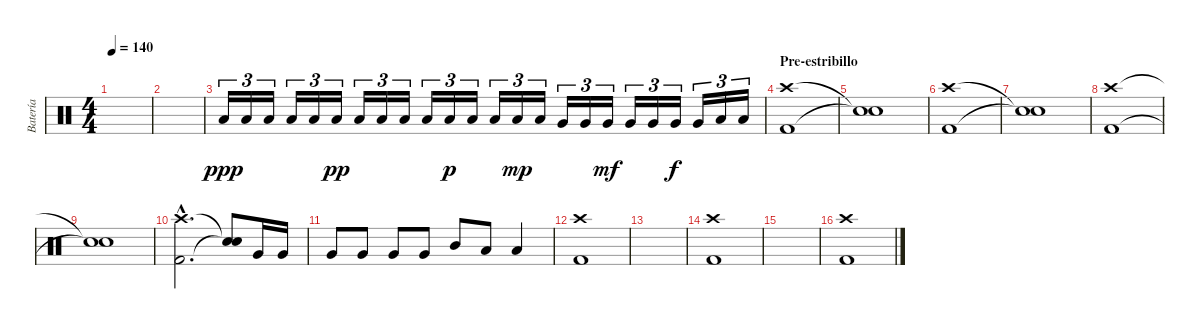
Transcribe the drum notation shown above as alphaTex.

\track ("Batería" "Batería") {instrument percussion}
\staff {score}
\articulation defaults
\ts (4 4)
\tempo 140
\clef neutral
\ks c
|
|
"Low Tom (hit)".16{tu (3 2) dy ppp} "Low Tom (hit)".16{tu (3 2)} "Low Tom (hit)".16{tu (3 2)} "Low Tom (hit)".16{tu (3 2)} "Low Tom (hit)".16{tu (3 2)} "Low Tom (hit)".16{tu (3 2) dy pp} "Low Tom (hit)".16{tu (3 2)} "Low Tom (hit)".16{tu (3 2)} "Low Tom (hit)".16{tu (3 2)} "Low Tom (hit)".16{tu (3 2)} "Low Tom (hit)".16{tu (3 2) dy p} "Low Tom (hit)".16{tu (3 2)} "Low Tom (hit)".16{tu (3 2)} "Low Tom (hit)".16{tu (3 2) dy mp} "Low Tom (hit)".16{tu (3 2)} "Very Low Tom (hit)".16{tu (3 2)} "Very Low Tom (hit)".16{tu (3 2)} "Very Low Tom (hit)".16{tu (3 2) dy mf} "Very Low Tom (hit)".16{tu (3 2)} "Very Low Tom (hit)".16{tu (3 2)} "Very Low Tom (hit)".16{tu (3 2) dy f} "Very Low Tom (hit)".16{tu (3 2)} "Low Floor Tom (hit)".16{tu (3 2)} "Low Floor Tom (hit)".16{tu (3 2)} |
\section ("" "Pre-estribillo")
("Crash high (hit)" "Kick (hit) 2").1 |
("Snare (hit)"{t} "Snare (hit)"{t}).1 |
("Crash high (hit)" "Kick (hit) 2").1 |
("Snare (hit)"{t} "Snare (hit)"{t}).1 |
("Crash high (hit)" "Kick (hit) 2").1 |
("Snare (hit)"{t} "Snare (hit)"{t}).1 |
("Crash high (hit)"{hac} "Kick (hit) 2"{hac}).2{d} ("Snare (hit)"{t} "Snare (hit)"{t}).8 "Very Low Tom (hit)".16 "Very Low Tom (hit)".16 |
"Very Low Tom (hit)".8 "Very Low Tom (hit)".8 "Very Low Tom (hit)".8 "Very Low Tom (hit)".8 "Mid Tom (hit)".8 "Low Tom (hit)".8 "Low Tom (hit)".4 |
("Crash high (hit)" "Kick (hit) 2").1 |
|
("Crash high (hit)" "Kick (hit) 2").1 |
|
("Crash high (hit)" "Kick (hit) 2").1
